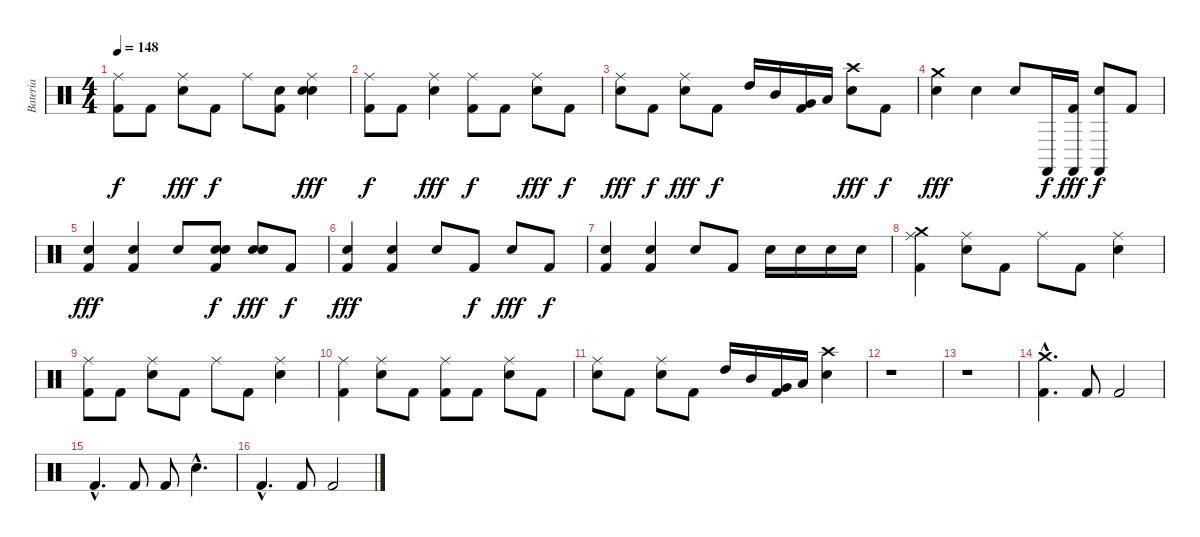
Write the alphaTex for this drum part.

\track ("Bateria" "Bateria") {instrument percussion}
\staff {score}
\articulation defaults
\ts (4 4)
\tempo 148
\clef neutral
\ks c
("Kick (hit) 2" "Ride (middle)").8{dy f} "Kick (hit) 2".8 ("Electric Snare (hit)" "Ride (middle)").8{dy fff} "Kick (hit) 2".8{dy f} "Ride (middle)".8 ("Kick (hit) 2" "Hand Clap (hit)").8 ("Electric Snare (hit)" "Ride (middle)" "Hand Clap (hit)").4{dy fff} |
("Kick (hit) 2" "Ride (middle)").8{dy f} "Kick (hit) 2".8 ("Electric Snare (hit)" "Ride (middle)").4{dy fff} ("Kick (hit) 2" "Ride (middle)").8{dy f} "Kick (hit) 2".8 ("Electric Snare (hit)" "Ride (middle)").8{dy fff} "Kick (hit) 2".8{dy f} |
("Electric Snare (hit)" "Ride (middle)").8{dy fff} "Kick (hit) 2".8{dy f} ("Electric Snare (hit)" "Ride (middle)").8{dy fff} "Kick (hit) 2".8{dy f} "High Tom (hit)".16 "Mid Tom (hit)".16 ("Very Low Tom (hit)" "Kick (hit) 2").16 "Low Floor Tom (hit)".16 ("Electric Snare (hit)" "Crash high (hit)").8{dy fff} "Kick (hit) 2".8{dy f} |
("Crash medium (hit)" "Electric Snare (hit)").4{dy fff} "Electric Snare (hit)".4 "Electric Snare (hit)".8 "Castanets (hit)".16{dy f} ("Kick (hit) 2" "Castanets (hit)").16{dy fff} ("Electric Snare (hit)" "Castanets (hit)").8{dy f} "Kick (hit) 2".8 |
("Kick (hit) 2" "Electric Snare (hit)").4{dy fff} ("Electric Snare (hit)" "Kick (hit) 2").4 "Electric Snare (hit)".8 ("Kick (hit) 2" "Snare (hit)" "Hand Clap (hit)").8{dy f} ("Electric Snare (hit)" "Snare (hit)" "Hand Clap (hit)").8{dy fff} "Kick (hit) 2".8{dy f} |
("Electric Snare (hit)" "Kick (hit) 2").4{dy fff} ("Electric Snare (hit)" "Kick (hit) 2").4 "Electric Snare (hit)".8 "Kick (hit) 2".8{dy f} "Electric Snare (hit)".8{dy fff} "Kick (hit) 2".8{dy f} |
("Electric Snare (hit)" "Kick (hit) 2").4 ("Electric Snare (hit)" "Kick (hit) 2").4 "Electric Snare (hit)".8 "Kick (hit) 2".8 "Electric Snare (hit)".16 "Electric Snare (hit)".16 "Electric Snare (hit)".16 "Electric Snare (hit)".16 |
("Crash medium (hit)" "Kick (hit) 2" "Ride (middle)").4 ("Electric Snare (hit)" "Ride (middle)").8 "Kick (hit) 2".8 "Ride (middle)".8 "Kick (hit) 2".8 ("Electric Snare (hit)" "Ride (middle)").4 |
("Kick (hit) 2" "Ride (middle)").8 "Kick (hit) 2".8 ("Electric Snare (hit)" "Ride (middle)").8 "Kick (hit) 2".8 "Ride (middle)".8 "Kick (hit) 2".8 ("Electric Snare (hit)" "Ride (middle)").4 |
("Kick (hit) 2" "Ride (middle)").4 ("Electric Snare (hit)" "Ride (middle)").8 "Kick (hit) 2".8 ("Kick (hit) 2" "Ride (middle)").8 "Kick (hit) 2".8 ("Electric Snare (hit)" "Ride (middle)").8 "Kick (hit) 2".8 |
("Electric Snare (hit)" "Ride (middle)").8 "Kick (hit) 2".8 ("Electric Snare (hit)" "Ride (middle)").8 "Kick (hit) 2".8 "High Tom (hit)".16 "Mid Tom (hit)".16 ("Very Low Tom (hit)" "Kick (hit) 2").16 "Low Floor Tom (hit)".16 ("Electric Snare (hit)" "Crash high (hit)").4 |
r.1 |
r.1 |
("Crash medium (hit)"{hac} "Kick (hit) 2"{hac}).4{d} "Kick (hit) 2".8 "Kick (hit) 2".2 |
"Kick (hit) 2"{hac}.4{d} "Kick (hit) 2".8 "Kick (hit) 2".8 "Electric Snare (hit)"{hac}.4{d} |
"Kick (hit) 2"{hac}.4{d} "Kick (hit) 2".8 "Kick (hit) 2".2
